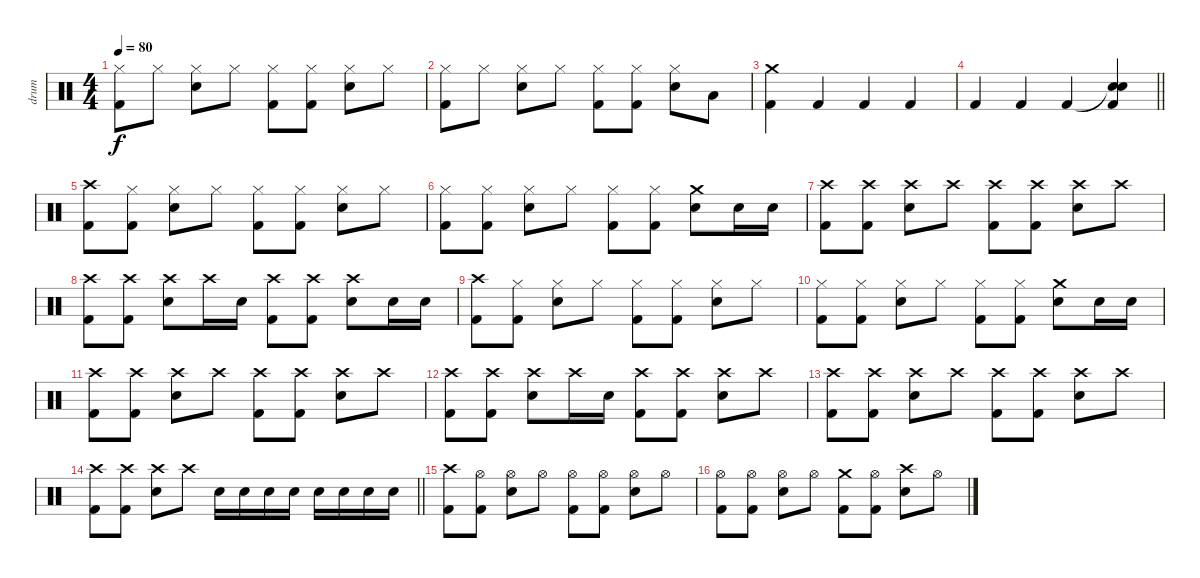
\track ("drum" "drum") {instrument percussion}
\staff {score}
\articulation defaults
\ts (4 4)
\tempo 80
\clef neutral
\ks c
("Hi-Hat (closed)" "Kick (hit) 2").8{dy f} "Hi-Hat (closed)".8 ("Hi-Hat (closed)" "Snare (hit) 2").8 "Hi-Hat (closed)".8 ("Hi-Hat (closed)" "Kick (hit) 2").8 ("Hi-Hat (closed)" "Kick (hit) 2").8 ("Hi-Hat (closed)" "Snare (hit) 2").8 "Hi-Hat (closed)".8 |
("Hi-Hat (closed)" "Kick (hit) 2").8 "Hi-Hat (closed)".8 ("Hi-Hat (closed)" "Snare (hit) 2").8 "Hi-Hat (closed)".8 ("Hi-Hat (closed)" "Kick (hit) 2").8 ("Hi-Hat (closed)" "Kick (hit) 2").8 ("Hi-Hat (closed)" "Snare (hit) 2").8 "Low Floor Tom (hit)".8 |
("Crash medium (hit)" "Kick (hit) 2").4 "Kick (hit) 2".4 "Kick (hit) 2".4 "Kick (hit) 2".4 |
\barLineRight lightlight "Kick (hit) 2".4 "Kick (hit) 2".4 "Kick (hit) 2".4
("Snare (hit)"{t} "Snare (hit) 2" "Kick (hit) 2").4 |
\section ("" "")
("Crash high (hit)" "Kick (hit) 2").8 ("Hi-Hat (closed)" "Kick (hit) 2").8 ("Hi-Hat (closed)" "Snare (hit) 2").8 "Hi-Hat (closed)".8 ("Hi-Hat (closed)" "Kick (hit) 2").8 ("Hi-Hat (closed)" "Kick (hit) 2").8 ("Hi-Hat (closed)" "Snare (hit) 2").8 "Hi-Hat (closed)".8 |
("Hi-Hat (closed)" "Kick (hit) 2").8 ("Hi-Hat (closed)" "Kick (hit) 2").8 ("Hi-Hat (closed)" "Snare (hit) 2").8 "Hi-Hat (closed)".8 ("Hi-Hat (closed)" "Kick (hit) 2").8 ("Hi-Hat (closed)" "Kick (hit) 2").8 ("Crash medium (hit)" "Snare (hit) 2").8 "Snare (hit) 2".16 "Snare (hit) 2".16 |
("Crash high (hit)" "Kick (hit) 2").8 ("Crash high (hit)" "Kick (hit) 2").8 ("Crash high (hit)" "Snare (hit) 2").8 "Crash high (hit)".8 ("Crash high (hit)" "Kick (hit) 2").8 ("Crash high (hit)" "Kick (hit) 2").8 ("Crash high (hit)" "Snare (hit) 2").8 "Crash high (hit)".8 |
("Crash high (hit)" "Kick (hit) 2").8 ("Crash high (hit)" "Kick (hit) 2").8 ("Crash high (hit)" "Snare (hit) 2").8 "Crash high (hit)".16 "Snare (hit) 2".16 ("Crash high (hit)" "Kick (hit) 2").8 ("Crash high (hit)" "Kick (hit) 2").8 ("Crash high (hit)" "Snare (hit) 2").8 "Snare (hit) 2".16 "Snare (hit) 2".16 |
("Crash high (hit)" "Kick (hit) 2").8 ("Hi-Hat (closed)" "Kick (hit) 2").8 ("Hi-Hat (closed)" "Snare (hit) 2").8 "Hi-Hat (closed)".8 ("Hi-Hat (closed)" "Kick (hit) 2").8 ("Hi-Hat (closed)" "Kick (hit) 2").8 ("Hi-Hat (closed)" "Snare (hit) 2").8 "Hi-Hat (closed)".8 |
("Hi-Hat (closed)" "Kick (hit) 2").8 ("Hi-Hat (closed)" "Kick (hit) 2").8 ("Hi-Hat (closed)" "Snare (hit) 2").8 "Hi-Hat (closed)".8 ("Hi-Hat (closed)" "Kick (hit) 2").8 ("Hi-Hat (closed)" "Kick (hit) 2").8 ("Crash medium (hit)" "Snare (hit) 2").8 "Snare (hit) 2".16 "Snare (hit) 2".16 |
("Crash high (hit)" "Kick (hit) 2").8 ("Crash high (hit)" "Kick (hit) 2").8 ("Crash high (hit)" "Snare (hit) 2").8 "Crash high (hit)".8 ("Crash high (hit)" "Kick (hit) 2").8 ("Crash high (hit)" "Kick (hit) 2").8 ("Crash high (hit)" "Snare (hit) 2").8 "Crash high (hit)".8 |
("Crash high (hit)" "Kick (hit) 2").8 ("Crash high (hit)" "Kick (hit) 2").8 ("Crash high (hit)" "Snare (hit) 2").8 "Crash high (hit)".16 "Snare (hit) 2".16 ("Crash high (hit)" "Kick (hit) 2").8 ("Crash high (hit)" "Kick (hit) 2").8 ("Crash high (hit)" "Snare (hit) 2").8 "Crash high (hit)".8 |
("Crash high (hit)" "Kick (hit) 2").8 ("Crash high (hit)" "Kick (hit) 2").8 ("Crash high (hit)" "Snare (hit) 2").8 "Crash high (hit)".8 ("Crash high (hit)" "Kick (hit) 2").8 ("Crash high (hit)" "Kick (hit) 2").8 ("Crash high (hit)" "Snare (hit) 2").8 "Crash high (hit)".8 |
\barLineRight lightlight
("Crash high (hit)" "Kick (hit) 2").8 ("Crash high (hit)" "Kick (hit) 2").8 ("Crash high (hit)" "Snare (hit) 2").8 "Crash high (hit)".8 "Snare (hit) 2".16 "Snare (hit) 2".16 "Snare (hit) 2".16 "Snare (hit) 2".16 "Snare (hit) 2".16 "Snare (hit) 2".16 "Snare (hit) 2".16 "Snare (hit) 2".16 |
\section ("" "")
("Crash high (hit)" "Kick (hit) 2").8 ("Hi-Hat (open)" "Kick (hit) 2").8 ("Hi-Hat (open)" "Snare (hit) 2").8 "Hi-Hat (open)".8 ("Hi-Hat (open)" "Kick (hit) 2").8 ("Hi-Hat (open)" "Kick (hit) 2").8 ("Hi-Hat (open)" "Snare (hit) 2").8 "Hi-Hat (open)".8 |
("Hi-Hat (open)" "Kick (hit) 2").8 ("Hi-Hat (open)" "Kick (hit) 2").8 ("Hi-Hat (open)" "Snare (hit) 2").8 "Hi-Hat (open)".8 ("Crash medium (hit)" "Kick (hit) 2").8 ("Hi-Hat (open)" "Kick (hit) 2").8 ("Crash high (hit)" "Snare (hit) 2").8 "Hi-Hat (open)".8
